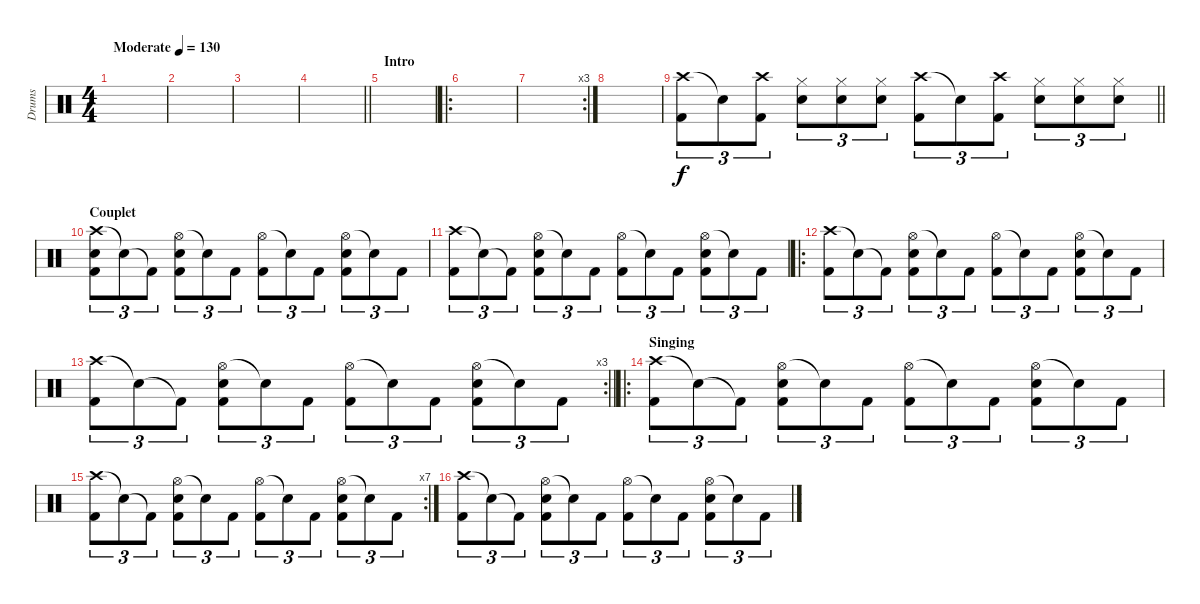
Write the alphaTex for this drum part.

\track ("Drums" "Drums") {instrument percussion}
\staff {score}
\articulation defaults
\ts (4 4)
\tempo (130 "Moderate")
\clef neutral
\ks c
|
|
|
\barLineRight lightlight
|
\section ("" "Intro")
|
\ro
|
\rc 3
|
|
\barLineRight lightlight
("Crash high (hit)" "Kick (hit) 2").8{tu (3 2)} "Snare (hit)"{t}.8{tu (3 2)} ("Crash high (hit)" "Kick (hit) 2").8{tu (3 2)} ("Hi-Hat (closed)" "Electric Snare (hit)").8{tu (3 2)} ("Hi-Hat (closed)" "Electric Snare (hit)").8{tu (3 2)} ("Hi-Hat (closed)" "Electric Snare (hit)").8{tu (3 2)} ("Crash high (hit)" "Kick (hit) 2").8{tu (3 2)} "Snare (hit)"{t}.8{tu (3 2)} ("Crash high (hit)" "Kick (hit) 2").8{tu (3 2)} ("Hi-Hat (closed)" "Electric Snare (hit)").8{tu (3 2)} ("Hi-Hat (closed)" "Electric Snare (hit)").8{tu (3 2)} ("Hi-Hat (closed)" "Electric Snare (hit)").8{tu (3 2)} |
\section ("" "Couplet")
("Crash high (hit)" "Electric Snare (hit)" "Kick (hit) 2").8{tu (3 2)} "Snare (hit)"{t}.8{tu (3 2)} "Kick (hit) 2"{t}.8{tu (3 2)} ("Hi-Hat (open)" "Electric Snare (hit)" "Kick (hit) 2").8{tu (3 2)} "Snare (hit)"{t}.8{tu (3 2)} "Kick (hit) 2".8{tu (3 2)} ("Hi-Hat (open)" "Kick (hit) 2").8{tu (3 2)} "Snare (hit)"{t}.8{tu (3 2)} "Kick (hit) 2".8{tu (3 2)} ("Hi-Hat (open)" "Electric Snare (hit)" "Kick (hit) 2").8{tu (3 2)} "Snare (hit)"{t}.8{tu (3 2)} "Kick (hit) 2".8{tu (3 2)} |
("Crash high (hit)" "Kick (hit) 2").8{tu (3 2)} "Snare (hit)"{t}.8{tu (3 2)} "Kick (hit) 2"{t}.8{tu (3 2)} ("Hi-Hat (open)" "Electric Snare (hit)" "Kick (hit) 2").8{tu (3 2)} "Snare (hit)"{t}.8{tu (3 2)} "Kick (hit) 2".8{tu (3 2)} ("Hi-Hat (open)" "Kick (hit) 2").8{tu (3 2)} "Snare (hit)"{t}.8{tu (3 2)} "Kick (hit) 2".8{tu (3 2)} ("Hi-Hat (open)" "Electric Snare (hit)" "Kick (hit) 2").8{tu (3 2)} "Snare (hit)"{t}.8{tu (3 2)} "Kick (hit) 2".8{tu (3 2)} |
\ro
("Crash high (hit)" "Kick (hit) 2").8{tu (3 2)} "Snare (hit)"{t}.8{tu (3 2)} "Kick (hit) 2"{t}.8{tu (3 2)} ("Hi-Hat (open)" "Electric Snare (hit)" "Kick (hit) 2").8{tu (3 2)} "Snare (hit)"{t}.8{tu (3 2)} "Kick (hit) 2".8{tu (3 2)} ("Hi-Hat (open)" "Kick (hit) 2").8{tu (3 2)} "Snare (hit)"{t}.8{tu (3 2)} "Kick (hit) 2".8{tu (3 2)} ("Hi-Hat (open)" "Electric Snare (hit)" "Kick (hit) 2").8{tu (3 2)} "Snare (hit)"{t}.8{tu (3 2)} "Kick (hit) 2".8{tu (3 2)} |
\rc 3
\barLineRight lightlight
("Crash high (hit)" "Kick (hit) 2").8{tu (3 2)} "Snare (hit)"{t}.8{tu (3 2)} "Kick (hit) 2"{t}.8{tu (3 2)} ("Hi-Hat (open)" "Electric Snare (hit)" "Kick (hit) 2").8{tu (3 2)} "Snare (hit)"{t}.8{tu (3 2)} "Kick (hit) 2".8{tu (3 2)} ("Hi-Hat (open)" "Kick (hit) 2").8{tu (3 2)} "Snare (hit)"{t}.8{tu (3 2)} "Kick (hit) 2".8{tu (3 2)} ("Hi-Hat (open)" "Electric Snare (hit)" "Kick (hit) 2").8{tu (3 2)} "Snare (hit)"{t}.8{tu (3 2)} "Kick (hit) 2".8{tu (3 2)} |
\ro
\section ("" "Singing")
("Crash high (hit)" "Kick (hit) 2").8{tu (3 2)} "Snare (hit)"{t}.8{tu (3 2)} "Kick (hit) 2"{t}.8{tu (3 2)} ("Hi-Hat (open)" "Electric Snare (hit)" "Kick (hit) 2").8{tu (3 2)} "Snare (hit)"{t}.8{tu (3 2)} "Kick (hit) 2".8{tu (3 2)} ("Hi-Hat (open)" "Kick (hit) 2").8{tu (3 2)} "Snare (hit)"{t}.8{tu (3 2)} "Kick (hit) 2".8{tu (3 2)} ("Hi-Hat (open)" "Electric Snare (hit)" "Kick (hit) 2").8{tu (3 2)} "Snare (hit)"{t}.8{tu (3 2)} "Kick (hit) 2".8{tu (3 2)} |
\rc 7
("Crash high (hit)" "Kick (hit) 2").8{tu (3 2)} "Snare (hit)"{t}.8{tu (3 2)} "Kick (hit) 2"{t}.8{tu (3 2)} ("Hi-Hat (open)" "Electric Snare (hit)" "Kick (hit) 2").8{tu (3 2)} "Snare (hit)"{t}.8{tu (3 2)} "Kick (hit) 2".8{tu (3 2)} ("Hi-Hat (open)" "Kick (hit) 2").8{tu (3 2)} "Snare (hit)"{t}.8{tu (3 2)} "Kick (hit) 2".8{tu (3 2)} ("Hi-Hat (open)" "Electric Snare (hit)" "Kick (hit) 2").8{tu (3 2)} "Snare (hit)"{t}.8{tu (3 2)} "Kick (hit) 2".8{tu (3 2)} |
("Crash high (hit)" "Kick (hit) 2").8{tu (3 2)} "Snare (hit)"{t}.8{tu (3 2)} "Kick (hit) 2"{t}.8{tu (3 2)} ("Hi-Hat (open)" "Electric Snare (hit)" "Kick (hit) 2").8{tu (3 2)} "Snare (hit)"{t}.8{tu (3 2)} "Kick (hit) 2".8{tu (3 2)} ("Hi-Hat (open)" "Kick (hit) 2").8{tu (3 2)} "Snare (hit)"{t}.8{tu (3 2)} "Kick (hit) 2".8{tu (3 2)} ("Hi-Hat (open)" "Electric Snare (hit)" "Kick (hit) 2").8{tu (3 2)} "Snare (hit)"{t}.8{tu (3 2)} "Kick (hit) 2".8{tu (3 2)}
